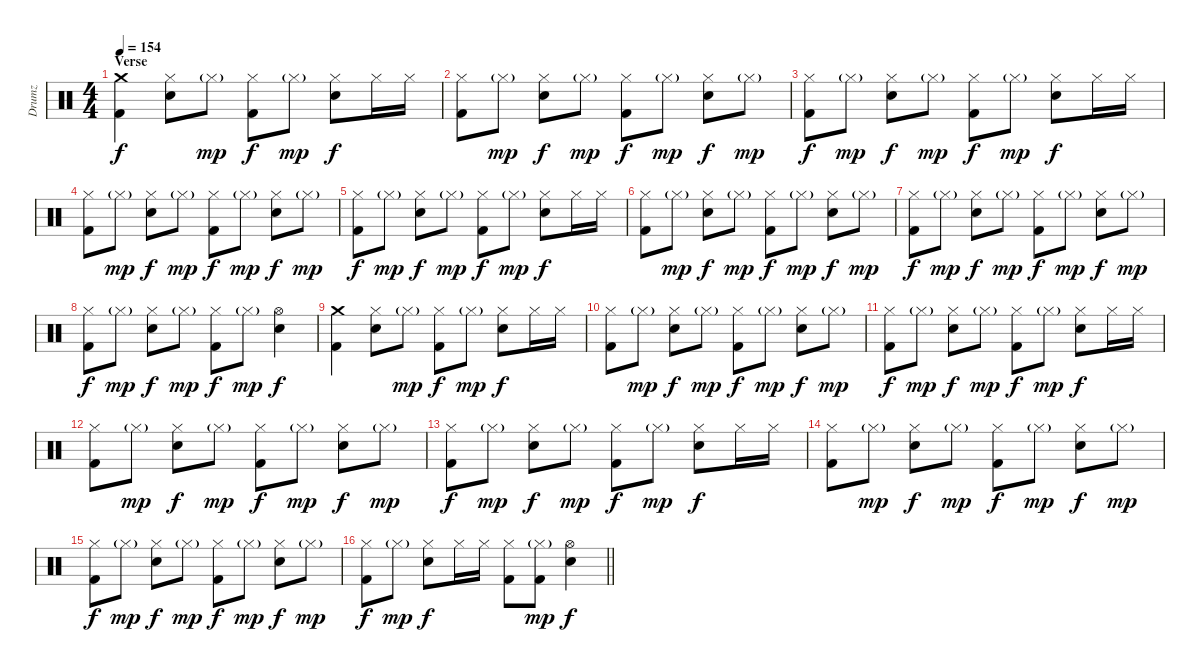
\track ("Drumz" "Drumz") {instrument percussion}
\staff {score}
\articulation defaults
\ts (4 4)
\section ("" "Verse")
\tempo 154
\clef neutral
\ks c
("Crash medium (hit)" "Kick (hit) 2").4{dy f} ("Hi-Hat (closed)" "Electric Snare (hit)").8 "Hi-Hat (closed)"{g}.8{dy mp} ("Hi-Hat (closed)" "Kick (hit) 2").8{dy f} "Hi-Hat (closed)"{g}.8{dy mp} ("Hi-Hat (closed)" "Electric Snare (hit)").8{dy f} "Hi-Hat (closed)".16 "Hi-Hat (closed)".16 |
("Hi-Hat (closed)" "Kick (hit) 2").8 "Hi-Hat (closed)"{g}.8{dy mp} ("Hi-Hat (closed)" "Electric Snare (hit)").8{dy f} "Hi-Hat (closed)"{g}.8{dy mp} ("Hi-Hat (closed)" "Kick (hit) 2").8{dy f} "Hi-Hat (closed)"{g}.8{dy mp} ("Hi-Hat (closed)" "Electric Snare (hit)").8{dy f} "Hi-Hat (closed)"{g}.8{dy mp} |
("Hi-Hat (closed)" "Kick (hit) 2").8{dy f} "Hi-Hat (closed)"{g}.8{dy mp} ("Hi-Hat (closed)" "Electric Snare (hit)").8{dy f} "Hi-Hat (closed)"{g}.8{dy mp} ("Hi-Hat (closed)" "Kick (hit) 2").8{dy f} "Hi-Hat (closed)"{g}.8{dy mp} ("Hi-Hat (closed)" "Electric Snare (hit)").8{dy f} "Hi-Hat (closed)".16 "Hi-Hat (closed)".16 |
("Hi-Hat (closed)" "Kick (hit) 2").8 "Hi-Hat (closed)"{g}.8{dy mp} ("Hi-Hat (closed)" "Electric Snare (hit)").8{dy f} "Hi-Hat (closed)"{g}.8{dy mp} ("Hi-Hat (closed)" "Kick (hit) 2").8{dy f} "Hi-Hat (closed)"{g}.8{dy mp} ("Hi-Hat (closed)" "Electric Snare (hit)").8{dy f} "Hi-Hat (closed)"{g}.8{dy mp} |
("Hi-Hat (closed)" "Kick (hit) 2").8{dy f} "Hi-Hat (closed)"{g}.8{dy mp} ("Hi-Hat (closed)" "Electric Snare (hit)").8{dy f} "Hi-Hat (closed)"{g}.8{dy mp} ("Hi-Hat (closed)" "Kick (hit) 2").8{dy f} "Hi-Hat (closed)"{g}.8{dy mp} ("Hi-Hat (closed)" "Electric Snare (hit)").8{dy f} "Hi-Hat (closed)".16 "Hi-Hat (closed)".16 |
("Hi-Hat (closed)" "Kick (hit) 2").8 "Hi-Hat (closed)"{g}.8{dy mp} ("Hi-Hat (closed)" "Electric Snare (hit)").8{dy f} "Hi-Hat (closed)"{g}.8{dy mp} ("Hi-Hat (closed)" "Kick (hit) 2").8{dy f} "Hi-Hat (closed)"{g}.8{dy mp} ("Hi-Hat (closed)" "Electric Snare (hit)").8{dy f} "Hi-Hat (closed)"{g}.8{dy mp} |
("Hi-Hat (closed)" "Kick (hit) 2").8{dy f} "Hi-Hat (closed)"{g}.8{dy mp} ("Hi-Hat (closed)" "Electric Snare (hit)").8{dy f} "Hi-Hat (closed)"{g}.8{dy mp} ("Hi-Hat (closed)" "Kick (hit) 2").8{dy f} "Hi-Hat (closed)"{g}.8{dy mp} ("Hi-Hat (closed)" "Electric Snare (hit)").8{dy f} "Hi-Hat (closed)"{g}.8{dy mp} |
("Hi-Hat (closed)" "Kick (hit) 2").8{dy f} "Hi-Hat (closed)"{g}.8{dy mp} ("Hi-Hat (closed)" "Electric Snare (hit)").8{dy f} "Hi-Hat (closed)"{g}.8{dy mp} ("Hi-Hat (closed)" "Kick (hit) 2").8{dy f} "Hi-Hat (closed)"{g}.8{dy mp} ("Hi-Hat (open)" "Electric Snare (hit)").4{dy f} |
("Crash medium (hit)" "Kick (hit) 2").4 ("Hi-Hat (closed)" "Electric Snare (hit)").8 "Hi-Hat (closed)"{g}.8{dy mp} ("Hi-Hat (closed)" "Kick (hit) 2").8{dy f} "Hi-Hat (closed)"{g}.8{dy mp} ("Hi-Hat (closed)" "Electric Snare (hit)").8{dy f} "Hi-Hat (closed)".16 "Hi-Hat (closed)".16 |
("Hi-Hat (closed)" "Kick (hit) 2").8 "Hi-Hat (closed)"{g}.8{dy mp} ("Hi-Hat (closed)" "Electric Snare (hit)").8{dy f} "Hi-Hat (closed)"{g}.8{dy mp} ("Hi-Hat (closed)" "Kick (hit) 2").8{dy f} "Hi-Hat (closed)"{g}.8{dy mp} ("Hi-Hat (closed)" "Electric Snare (hit)").8{dy f} "Hi-Hat (closed)"{g}.8{dy mp} |
("Hi-Hat (closed)" "Kick (hit) 2").8{dy f} "Hi-Hat (closed)"{g}.8{dy mp} ("Hi-Hat (closed)" "Electric Snare (hit)").8{dy f} "Hi-Hat (closed)"{g}.8{dy mp} ("Hi-Hat (closed)" "Kick (hit) 2").8{dy f} "Hi-Hat (closed)"{g}.8{dy mp} ("Hi-Hat (closed)" "Electric Snare (hit)").8{dy f} "Hi-Hat (closed)".16 "Hi-Hat (closed)".16 |
("Hi-Hat (closed)" "Kick (hit) 2").8 "Hi-Hat (closed)"{g}.8{dy mp} ("Hi-Hat (closed)" "Electric Snare (hit)").8{dy f} "Hi-Hat (closed)"{g}.8{dy mp} ("Hi-Hat (closed)" "Kick (hit) 2").8{dy f} "Hi-Hat (closed)"{g}.8{dy mp} ("Hi-Hat (closed)" "Electric Snare (hit)").8{dy f} "Hi-Hat (closed)"{g}.8{dy mp} |
("Hi-Hat (closed)" "Kick (hit) 2").8{dy f} "Hi-Hat (closed)"{g}.8{dy mp} ("Hi-Hat (closed)" "Electric Snare (hit)").8{dy f} "Hi-Hat (closed)"{g}.8{dy mp} ("Hi-Hat (closed)" "Kick (hit) 2").8{dy f} "Hi-Hat (closed)"{g}.8{dy mp} ("Hi-Hat (closed)" "Electric Snare (hit)").8{dy f} "Hi-Hat (closed)".16 "Hi-Hat (closed)".16 |
("Hi-Hat (closed)" "Kick (hit) 2").8 "Hi-Hat (closed)"{g}.8{dy mp} ("Hi-Hat (closed)" "Electric Snare (hit)").8{dy f} "Hi-Hat (closed)"{g}.8{dy mp} ("Hi-Hat (closed)" "Kick (hit) 2").8{dy f} "Hi-Hat (closed)"{g}.8{dy mp} ("Hi-Hat (closed)" "Electric Snare (hit)").8{dy f} "Hi-Hat (closed)"{g}.8{dy mp} |
("Hi-Hat (closed)" "Kick (hit) 2").8{dy f} "Hi-Hat (closed)"{g}.8{dy mp} ("Hi-Hat (closed)" "Electric Snare (hit)").8{dy f} "Hi-Hat (closed)"{g}.8{dy mp} ("Hi-Hat (closed)" "Kick (hit) 2").8{dy f} "Hi-Hat (closed)"{g}.8{dy mp} ("Hi-Hat (closed)" "Electric Snare (hit)").8{dy f} "Hi-Hat (closed)"{g}.8{dy mp} |
\barLineRight lightlight
("Hi-Hat (closed)" "Kick (hit) 2").8{dy f} "Hi-Hat (closed)"{g}.8{dy mp} ("Hi-Hat (closed)" "Electric Snare (hit)").8{dy f} "Hi-Hat (closed)".16 "Hi-Hat (closed)".16 ("Hi-Hat (closed)" "Kick (hit) 2").8 ("Hi-Hat (closed)"{g} "Kick (hit) 2").8{dy mp} ("Hi-Hat (open)" "Electric Snare (hit)").4{dy f}
